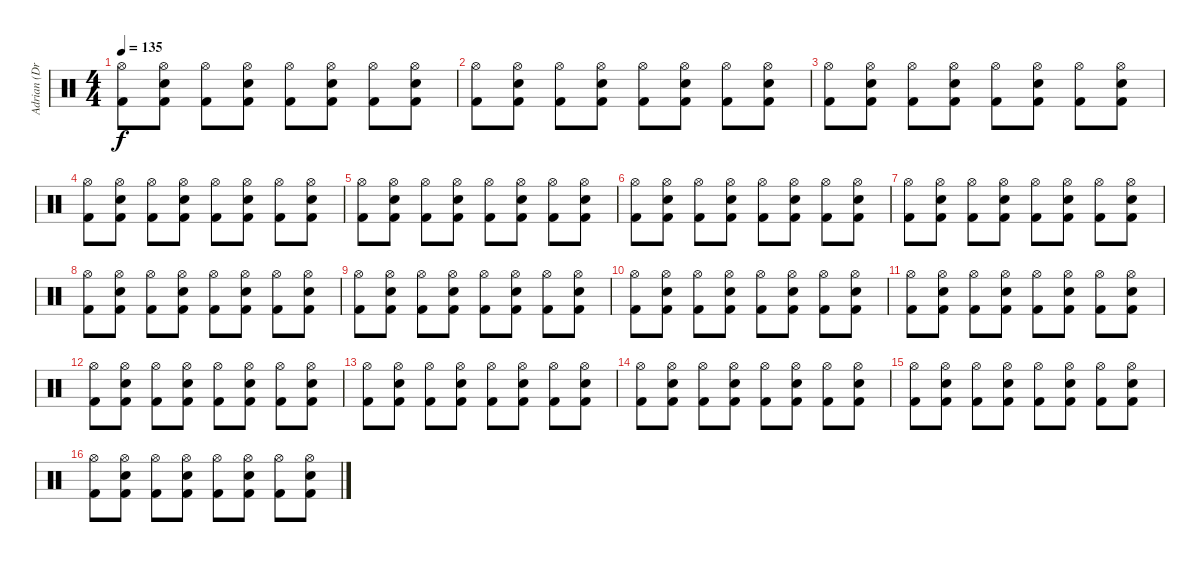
\track ("Adrian (Drums)" "Adrian (Dr") {instrument percussion}
\staff {score}
\articulation defaults
\ts (4 4)
\tempo 135
\clef neutral
\ks c
("Kick (hit) 2" "Hi-Hat (open)").8{dy f} ("Kick (hit) 2" "Hi-Hat (open)" "Snare (hit) 2").8 ("Kick (hit) 2" "Hi-Hat (open)").8 ("Kick (hit) 2" "Hi-Hat (open)" "Snare (hit) 2").8 ("Kick (hit) 2" "Hi-Hat (open)").8 ("Kick (hit) 2" "Hi-Hat (open)" "Snare (hit) 2").8 ("Kick (hit) 2" "Hi-Hat (open)").8 ("Kick (hit) 2" "Hi-Hat (open)" "Snare (hit) 2").8 |
("Kick (hit) 2" "Hi-Hat (open)").8 ("Kick (hit) 2" "Hi-Hat (open)" "Snare (hit) 2").8 ("Kick (hit) 2" "Hi-Hat (open)").8 ("Kick (hit) 2" "Hi-Hat (open)" "Snare (hit) 2").8 ("Kick (hit) 2" "Hi-Hat (open)").8 ("Kick (hit) 2" "Hi-Hat (open)" "Snare (hit) 2").8 ("Kick (hit) 2" "Hi-Hat (open)").8 ("Kick (hit) 2" "Hi-Hat (open)" "Snare (hit) 2").8 |
("Kick (hit) 2" "Hi-Hat (open)").8 ("Kick (hit) 2" "Hi-Hat (open)" "Snare (hit) 2").8 ("Kick (hit) 2" "Hi-Hat (open)").8 ("Kick (hit) 2" "Hi-Hat (open)" "Snare (hit) 2").8 ("Kick (hit) 2" "Hi-Hat (open)").8 ("Kick (hit) 2" "Hi-Hat (open)" "Snare (hit) 2").8 ("Kick (hit) 2" "Hi-Hat (open)").8 ("Kick (hit) 2" "Hi-Hat (open)" "Snare (hit) 2").8 |
("Kick (hit) 2" "Hi-Hat (open)").8 ("Kick (hit) 2" "Hi-Hat (open)" "Snare (hit) 2").8 ("Kick (hit) 2" "Hi-Hat (open)").8 ("Kick (hit) 2" "Hi-Hat (open)" "Snare (hit) 2").8 ("Kick (hit) 2" "Hi-Hat (open)").8 ("Kick (hit) 2" "Hi-Hat (open)" "Snare (hit) 2").8 ("Kick (hit) 2" "Hi-Hat (open)").8 ("Kick (hit) 2" "Hi-Hat (open)" "Snare (hit) 2").8 |
("Kick (hit) 2" "Hi-Hat (open)").8 ("Kick (hit) 2" "Hi-Hat (open)" "Snare (hit) 2").8 ("Kick (hit) 2" "Hi-Hat (open)").8 ("Kick (hit) 2" "Hi-Hat (open)" "Snare (hit) 2").8 ("Kick (hit) 2" "Hi-Hat (open)").8 ("Kick (hit) 2" "Hi-Hat (open)" "Snare (hit) 2").8 ("Kick (hit) 2" "Hi-Hat (open)").8 ("Kick (hit) 2" "Hi-Hat (open)" "Snare (hit) 2").8 |
("Kick (hit) 2" "Hi-Hat (open)").8 ("Kick (hit) 2" "Hi-Hat (open)" "Snare (hit) 2").8 ("Kick (hit) 2" "Hi-Hat (open)").8 ("Kick (hit) 2" "Hi-Hat (open)" "Snare (hit) 2").8 ("Kick (hit) 2" "Hi-Hat (open)").8 ("Kick (hit) 2" "Hi-Hat (open)" "Snare (hit) 2").8 ("Kick (hit) 2" "Hi-Hat (open)").8 ("Kick (hit) 2" "Hi-Hat (open)" "Snare (hit) 2").8 |
("Kick (hit) 2" "Hi-Hat (open)").8 ("Kick (hit) 2" "Hi-Hat (open)" "Snare (hit) 2").8 ("Kick (hit) 2" "Hi-Hat (open)").8 ("Kick (hit) 2" "Hi-Hat (open)" "Snare (hit) 2").8 ("Kick (hit) 2" "Hi-Hat (open)").8 ("Kick (hit) 2" "Hi-Hat (open)" "Snare (hit) 2").8 ("Kick (hit) 2" "Hi-Hat (open)").8 ("Kick (hit) 2" "Hi-Hat (open)" "Snare (hit) 2").8 |
("Kick (hit) 2" "Hi-Hat (open)").8 ("Kick (hit) 2" "Hi-Hat (open)" "Snare (hit) 2").8 ("Kick (hit) 2" "Hi-Hat (open)").8 ("Kick (hit) 2" "Hi-Hat (open)" "Snare (hit) 2").8 ("Kick (hit) 2" "Hi-Hat (open)").8 ("Kick (hit) 2" "Hi-Hat (open)" "Snare (hit) 2").8 ("Kick (hit) 2" "Hi-Hat (open)").8 ("Kick (hit) 2" "Hi-Hat (open)" "Snare (hit) 2").8 |
("Kick (hit) 2" "Hi-Hat (open)").8 ("Kick (hit) 2" "Hi-Hat (open)" "Snare (hit) 2").8 ("Kick (hit) 2" "Hi-Hat (open)").8 ("Kick (hit) 2" "Hi-Hat (open)" "Snare (hit) 2").8 ("Kick (hit) 2" "Hi-Hat (open)").8 ("Kick (hit) 2" "Hi-Hat (open)" "Snare (hit) 2").8 ("Kick (hit) 2" "Hi-Hat (open)").8 ("Kick (hit) 2" "Hi-Hat (open)" "Snare (hit) 2").8 |
("Kick (hit) 2" "Hi-Hat (open)").8 ("Kick (hit) 2" "Hi-Hat (open)" "Snare (hit) 2").8 ("Kick (hit) 2" "Hi-Hat (open)").8 ("Kick (hit) 2" "Hi-Hat (open)" "Snare (hit) 2").8 ("Kick (hit) 2" "Hi-Hat (open)").8 ("Kick (hit) 2" "Hi-Hat (open)" "Snare (hit) 2").8 ("Kick (hit) 2" "Hi-Hat (open)").8 ("Kick (hit) 2" "Hi-Hat (open)" "Snare (hit) 2").8 |
("Kick (hit) 2" "Hi-Hat (open)").8 ("Kick (hit) 2" "Hi-Hat (open)" "Snare (hit) 2").8 ("Kick (hit) 2" "Hi-Hat (open)").8 ("Kick (hit) 2" "Hi-Hat (open)" "Snare (hit) 2").8 ("Kick (hit) 2" "Hi-Hat (open)").8 ("Kick (hit) 2" "Hi-Hat (open)" "Snare (hit) 2").8 ("Kick (hit) 2" "Hi-Hat (open)").8 ("Kick (hit) 2" "Hi-Hat (open)" "Snare (hit) 2").8 |
("Kick (hit) 2" "Hi-Hat (open)").8 ("Kick (hit) 2" "Hi-Hat (open)" "Snare (hit) 2").8 ("Kick (hit) 2" "Hi-Hat (open)").8 ("Kick (hit) 2" "Hi-Hat (open)" "Snare (hit) 2").8 ("Kick (hit) 2" "Hi-Hat (open)").8 ("Kick (hit) 2" "Hi-Hat (open)" "Snare (hit) 2").8 ("Kick (hit) 2" "Hi-Hat (open)").8 ("Kick (hit) 2" "Hi-Hat (open)" "Snare (hit) 2").8 |
("Kick (hit) 2" "Hi-Hat (open)").8 ("Kick (hit) 2" "Hi-Hat (open)" "Snare (hit) 2").8 ("Kick (hit) 2" "Hi-Hat (open)").8 ("Kick (hit) 2" "Hi-Hat (open)" "Snare (hit) 2").8 ("Kick (hit) 2" "Hi-Hat (open)").8 ("Kick (hit) 2" "Hi-Hat (open)" "Snare (hit) 2").8 ("Kick (hit) 2" "Hi-Hat (open)").8 ("Kick (hit) 2" "Hi-Hat (open)" "Snare (hit) 2").8 |
("Kick (hit) 2" "Hi-Hat (open)").8 ("Kick (hit) 2" "Hi-Hat (open)" "Snare (hit) 2").8 ("Kick (hit) 2" "Hi-Hat (open)").8 ("Kick (hit) 2" "Hi-Hat (open)" "Snare (hit) 2").8 ("Kick (hit) 2" "Hi-Hat (open)").8 ("Kick (hit) 2" "Hi-Hat (open)" "Snare (hit) 2").8 ("Kick (hit) 2" "Hi-Hat (open)").8 ("Kick (hit) 2" "Hi-Hat (open)" "Snare (hit) 2").8 |
("Kick (hit) 2" "Hi-Hat (open)").8 ("Kick (hit) 2" "Hi-Hat (open)" "Snare (hit) 2").8 ("Kick (hit) 2" "Hi-Hat (open)").8 ("Kick (hit) 2" "Hi-Hat (open)" "Snare (hit) 2").8 ("Kick (hit) 2" "Hi-Hat (open)").8 ("Kick (hit) 2" "Hi-Hat (open)" "Snare (hit) 2").8 ("Kick (hit) 2" "Hi-Hat (open)").8 ("Kick (hit) 2" "Hi-Hat (open)" "Snare (hit) 2").8 |
("Kick (hit) 2" "Hi-Hat (open)").8 ("Kick (hit) 2" "Hi-Hat (open)" "Snare (hit) 2").8 ("Kick (hit) 2" "Hi-Hat (open)").8 ("Kick (hit) 2" "Hi-Hat (open)" "Snare (hit) 2").8 ("Kick (hit) 2" "Hi-Hat (open)").8 ("Kick (hit) 2" "Hi-Hat (open)" "Snare (hit) 2").8 ("Kick (hit) 2" "Hi-Hat (open)").8 ("Kick (hit) 2" "Hi-Hat (open)" "Snare (hit) 2").8
